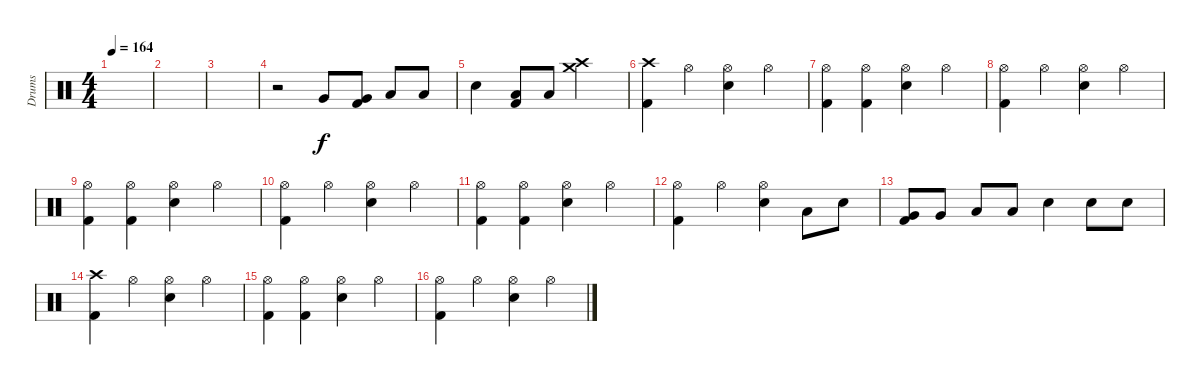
\track ("Drums" "Drums") {instrument percussion}
\staff {score}
\articulation defaults
\ts (4 4)
\tempo 164
\clef neutral
\ks c
|
|
|
r.2 "Very Low Tom (hit)".8 ("Very Low Tom (hit)" "Kick (hit) 2").8 "Low Floor Tom (hit)".8 "Low Floor Tom (hit)".8 |
"Snare (hit) 2".4 ("Low Floor Tom (hit)" "Kick (hit) 2").8 "Low Floor Tom (hit)".8 ("Crash high (hit)" "Crash medium (hit)").2 |
("Crash high (hit)" "Kick (hit) 2").4 "Hi-Hat (open)".4 ("Hi-Hat (open)" "Snare (hit) 2").4 "Hi-Hat (open)".4 |
("Hi-Hat (open)" "Kick (hit) 2").4 ("Hi-Hat (open)" "Kick (hit) 2").4 ("Hi-Hat (open)" "Snare (hit) 2").4 "Hi-Hat (open)".4 |
("Hi-Hat (open)" "Kick (hit) 2").4 "Hi-Hat (open)".4 ("Hi-Hat (open)" "Snare (hit) 2").4 "Hi-Hat (open)".4 |
("Hi-Hat (open)" "Kick (hit) 2").4 ("Hi-Hat (open)" "Kick (hit) 2").4 ("Hi-Hat (open)" "Snare (hit) 2").4 "Hi-Hat (open)".4 |
("Hi-Hat (open)" "Kick (hit) 2").4 "Hi-Hat (open)".4 ("Hi-Hat (open)" "Snare (hit) 2").4 "Hi-Hat (open)".4 |
("Hi-Hat (open)" "Kick (hit) 2").4 ("Hi-Hat (open)" "Kick (hit) 2").4 ("Hi-Hat (open)" "Snare (hit) 2").4 "Hi-Hat (open)".4 |
("Hi-Hat (open)" "Kick (hit) 2").4 "Hi-Hat (open)".4 ("Hi-Hat (open)" "Snare (hit) 2").4 "Low Tom (hit)".8 "Snare (hit) 2".8 |
("Kick (hit) 2" "Very Low Tom (hit)").8 "Very Low Tom (hit)".8 "Low Floor Tom (hit)".8 "Low Floor Tom (hit)".8 "Snare (hit) 2".4 "Snare (hit) 2".8 "Snare (hit) 2".8 |
("Crash high (hit)" "Kick (hit) 2").4 "Hi-Hat (open)".4 ("Hi-Hat (open)" "Snare (hit) 2").4 "Hi-Hat (open)".4 |
("Hi-Hat (open)" "Kick (hit) 2").4 ("Hi-Hat (open)" "Kick (hit) 2").4 ("Hi-Hat (open)" "Snare (hit) 2").4 "Hi-Hat (open)".4 |
("Hi-Hat (open)" "Kick (hit) 2").4 "Hi-Hat (open)".4 ("Hi-Hat (open)" "Snare (hit) 2").4 "Hi-Hat (open)".4
